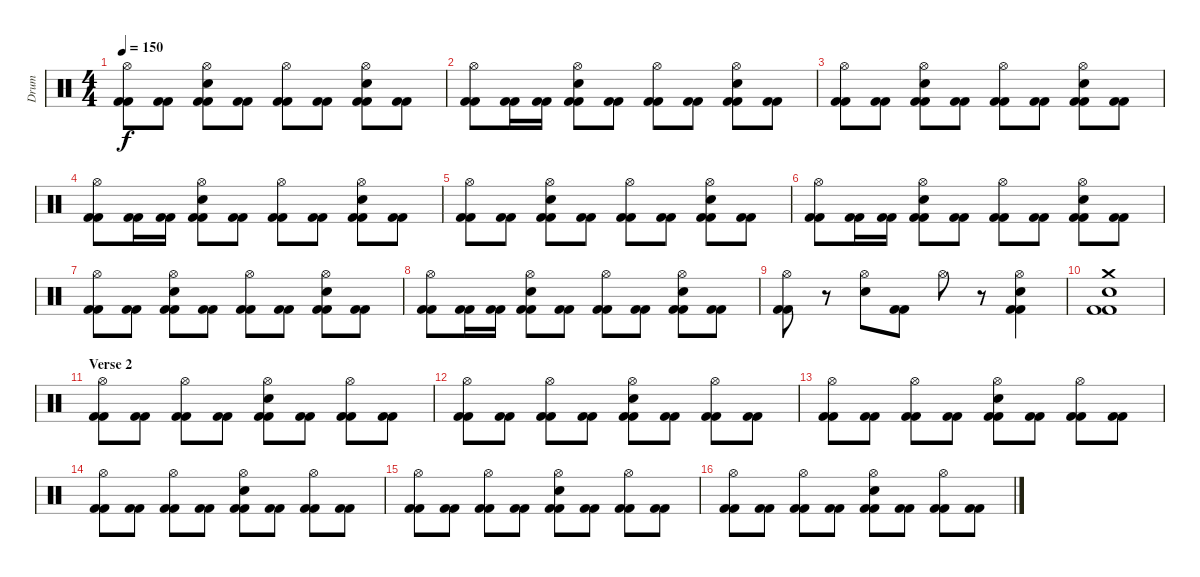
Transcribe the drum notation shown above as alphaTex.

\track ("Drum" "Drum") {instrument percussion}
\staff {score}
\articulation defaults
\ts (4 4)
\tempo 150
\clef neutral
\ks c
("Hi-Hat (open)" "Kick (hit) 2" "Kick (hit) 2").8{dy f} ("Kick (hit) 2" "Kick (hit) 2").8 ("Snare (hit) 2" "Hi-Hat (open)" "Kick (hit) 2" "Kick (hit) 2").8 ("Kick (hit) 2" "Kick (hit) 2").8 ("Hi-Hat (open)" "Kick (hit) 2" "Kick (hit) 2").8 ("Kick (hit) 2" "Kick (hit) 2").8 ("Snare (hit) 2" "Hi-Hat (open)" "Kick (hit) 2" "Kick (hit) 2").8 ("Kick (hit) 2" "Kick (hit) 2").8 |
("Hi-Hat (open)" "Kick (hit) 2" "Kick (hit) 2").8 ("Kick (hit) 2" "Kick (hit) 2").16 ("Kick (hit) 2" "Kick (hit) 2").16 ("Snare (hit) 2" "Hi-Hat (open)" "Kick (hit) 2" "Kick (hit) 2").8 ("Kick (hit) 2" "Kick (hit) 2").8 ("Hi-Hat (open)" "Kick (hit) 2" "Kick (hit) 2").8 ("Kick (hit) 2" "Kick (hit) 2").8 ("Snare (hit) 2" "Hi-Hat (open)" "Kick (hit) 2" "Kick (hit) 2").8 ("Kick (hit) 2" "Kick (hit) 2").8 |
("Hi-Hat (open)" "Kick (hit) 2" "Kick (hit) 2").8 ("Kick (hit) 2" "Kick (hit) 2").8 ("Snare (hit) 2" "Hi-Hat (open)" "Kick (hit) 2" "Kick (hit) 2").8 ("Kick (hit) 2" "Kick (hit) 2").8 ("Hi-Hat (open)" "Kick (hit) 2" "Kick (hit) 2").8 ("Kick (hit) 2" "Kick (hit) 2").8 ("Snare (hit) 2" "Hi-Hat (open)" "Kick (hit) 2" "Kick (hit) 2").8 ("Kick (hit) 2" "Kick (hit) 2").8 |
("Hi-Hat (open)" "Kick (hit) 2" "Kick (hit) 2").8 ("Kick (hit) 2" "Kick (hit) 2").16 ("Kick (hit) 2" "Kick (hit) 2").16 ("Snare (hit) 2" "Hi-Hat (open)" "Kick (hit) 2" "Kick (hit) 2").8 ("Kick (hit) 2" "Kick (hit) 2").8 ("Hi-Hat (open)" "Kick (hit) 2" "Kick (hit) 2").8 ("Kick (hit) 2" "Kick (hit) 2").8 ("Snare (hit) 2" "Hi-Hat (open)" "Kick (hit) 2" "Kick (hit) 2").8 ("Kick (hit) 2" "Kick (hit) 2").8 |
("Hi-Hat (open)" "Kick (hit) 2" "Kick (hit) 2").8 ("Kick (hit) 2" "Kick (hit) 2").8 ("Snare (hit) 2" "Hi-Hat (open)" "Kick (hit) 2" "Kick (hit) 2").8 ("Kick (hit) 2" "Kick (hit) 2").8 ("Hi-Hat (open)" "Kick (hit) 2" "Kick (hit) 2").8 ("Kick (hit) 2" "Kick (hit) 2").8 ("Snare (hit) 2" "Hi-Hat (open)" "Kick (hit) 2" "Kick (hit) 2").8 ("Kick (hit) 2" "Kick (hit) 2").8 |
("Hi-Hat (open)" "Kick (hit) 2" "Kick (hit) 2").8 ("Kick (hit) 2" "Kick (hit) 2").16 ("Kick (hit) 2" "Kick (hit) 2").16 ("Snare (hit) 2" "Hi-Hat (open)" "Kick (hit) 2" "Kick (hit) 2").8 ("Kick (hit) 2" "Kick (hit) 2").8 ("Hi-Hat (open)" "Kick (hit) 2" "Kick (hit) 2").8 ("Kick (hit) 2" "Kick (hit) 2").8 ("Snare (hit) 2" "Hi-Hat (open)" "Kick (hit) 2" "Kick (hit) 2").8 ("Kick (hit) 2" "Kick (hit) 2").8 |
("Hi-Hat (open)" "Kick (hit) 2" "Kick (hit) 2").8 ("Kick (hit) 2" "Kick (hit) 2").8 ("Snare (hit) 2" "Hi-Hat (open)" "Kick (hit) 2" "Kick (hit) 2").8 ("Kick (hit) 2" "Kick (hit) 2").8 ("Hi-Hat (open)" "Kick (hit) 2" "Kick (hit) 2").8 ("Kick (hit) 2" "Kick (hit) 2").8 ("Snare (hit) 2" "Hi-Hat (open)" "Kick (hit) 2" "Kick (hit) 2").8 ("Kick (hit) 2" "Kick (hit) 2").8 |
("Hi-Hat (open)" "Kick (hit) 2" "Kick (hit) 2").8 ("Kick (hit) 2" "Kick (hit) 2").16 ("Kick (hit) 2" "Kick (hit) 2").16 ("Snare (hit) 2" "Hi-Hat (open)" "Kick (hit) 2" "Kick (hit) 2").8 ("Kick (hit) 2" "Kick (hit) 2").8 ("Hi-Hat (open)" "Kick (hit) 2" "Kick (hit) 2").8 ("Kick (hit) 2" "Kick (hit) 2").8 ("Snare (hit) 2" "Hi-Hat (open)" "Kick (hit) 2" "Kick (hit) 2").8 ("Kick (hit) 2" "Kick (hit) 2").8 |
("Hi-Hat (open)" "Kick (hit) 2" "Kick (hit) 2").8 r.8 ("Snare (hit) 2" "Hi-Hat (open)").8 ("Kick (hit) 2" "Kick (hit) 2").8 "Hi-Hat (open)".8 r.8 ("Snare (hit) 2" "Hi-Hat (open)" "Kick (hit) 2" "Kick (hit) 2").4 |
("Snare (hit) 2" "Crash medium (hit)" "Kick (hit) 2" "Kick (hit) 2").1 |
\section ("" "Verse 2")
("Hi-Hat (open)" "Kick (hit) 2" "Kick (hit) 2").8 ("Kick (hit) 2" "Kick (hit) 2").8 ("Hi-Hat (open)" "Kick (hit) 2" "Kick (hit) 2").8 ("Kick (hit) 2" "Kick (hit) 2").8 ("Snare (hit) 2" "Hi-Hat (open)" "Kick (hit) 2" "Kick (hit) 2").8 ("Kick (hit) 2" "Kick (hit) 2").8 ("Hi-Hat (open)" "Kick (hit) 2" "Kick (hit) 2").8 ("Kick (hit) 2" "Kick (hit) 2").8 |
("Hi-Hat (open)" "Kick (hit) 2" "Kick (hit) 2").8 ("Kick (hit) 2" "Kick (hit) 2").8 ("Hi-Hat (open)" "Kick (hit) 2" "Kick (hit) 2").8 ("Kick (hit) 2" "Kick (hit) 2").8 ("Snare (hit) 2" "Hi-Hat (open)" "Kick (hit) 2" "Kick (hit) 2").8 ("Kick (hit) 2" "Kick (hit) 2").8 ("Hi-Hat (open)" "Kick (hit) 2" "Kick (hit) 2").8 ("Kick (hit) 2" "Kick (hit) 2").8 |
("Hi-Hat (open)" "Kick (hit) 2" "Kick (hit) 2").8 ("Kick (hit) 2" "Kick (hit) 2").8 ("Hi-Hat (open)" "Kick (hit) 2" "Kick (hit) 2").8 ("Kick (hit) 2" "Kick (hit) 2").8 ("Snare (hit) 2" "Hi-Hat (open)" "Kick (hit) 2" "Kick (hit) 2").8 ("Kick (hit) 2" "Kick (hit) 2").8 ("Hi-Hat (open)" "Kick (hit) 2" "Kick (hit) 2").8 ("Kick (hit) 2" "Kick (hit) 2").8 |
("Hi-Hat (open)" "Kick (hit) 2" "Kick (hit) 2").8 ("Kick (hit) 2" "Kick (hit) 2").8 ("Hi-Hat (open)" "Kick (hit) 2" "Kick (hit) 2").8 ("Kick (hit) 2" "Kick (hit) 2").8 ("Snare (hit) 2" "Hi-Hat (open)" "Kick (hit) 2" "Kick (hit) 2").8 ("Kick (hit) 2" "Kick (hit) 2").8 ("Hi-Hat (open)" "Kick (hit) 2" "Kick (hit) 2").8 ("Kick (hit) 2" "Kick (hit) 2").8 |
("Hi-Hat (open)" "Kick (hit) 2" "Kick (hit) 2").8 ("Kick (hit) 2" "Kick (hit) 2").8 ("Hi-Hat (open)" "Kick (hit) 2" "Kick (hit) 2").8 ("Kick (hit) 2" "Kick (hit) 2").8 ("Snare (hit) 2" "Hi-Hat (open)" "Kick (hit) 2" "Kick (hit) 2").8 ("Kick (hit) 2" "Kick (hit) 2").8 ("Hi-Hat (open)" "Kick (hit) 2" "Kick (hit) 2").8 ("Kick (hit) 2" "Kick (hit) 2").8 |
("Hi-Hat (open)" "Kick (hit) 2" "Kick (hit) 2").8 ("Kick (hit) 2" "Kick (hit) 2").8 ("Hi-Hat (open)" "Kick (hit) 2" "Kick (hit) 2").8 ("Kick (hit) 2" "Kick (hit) 2").8 ("Snare (hit) 2" "Hi-Hat (open)" "Kick (hit) 2" "Kick (hit) 2").8 ("Kick (hit) 2" "Kick (hit) 2").8 ("Hi-Hat (open)" "Kick (hit) 2" "Kick (hit) 2").8 ("Kick (hit) 2" "Kick (hit) 2").8
